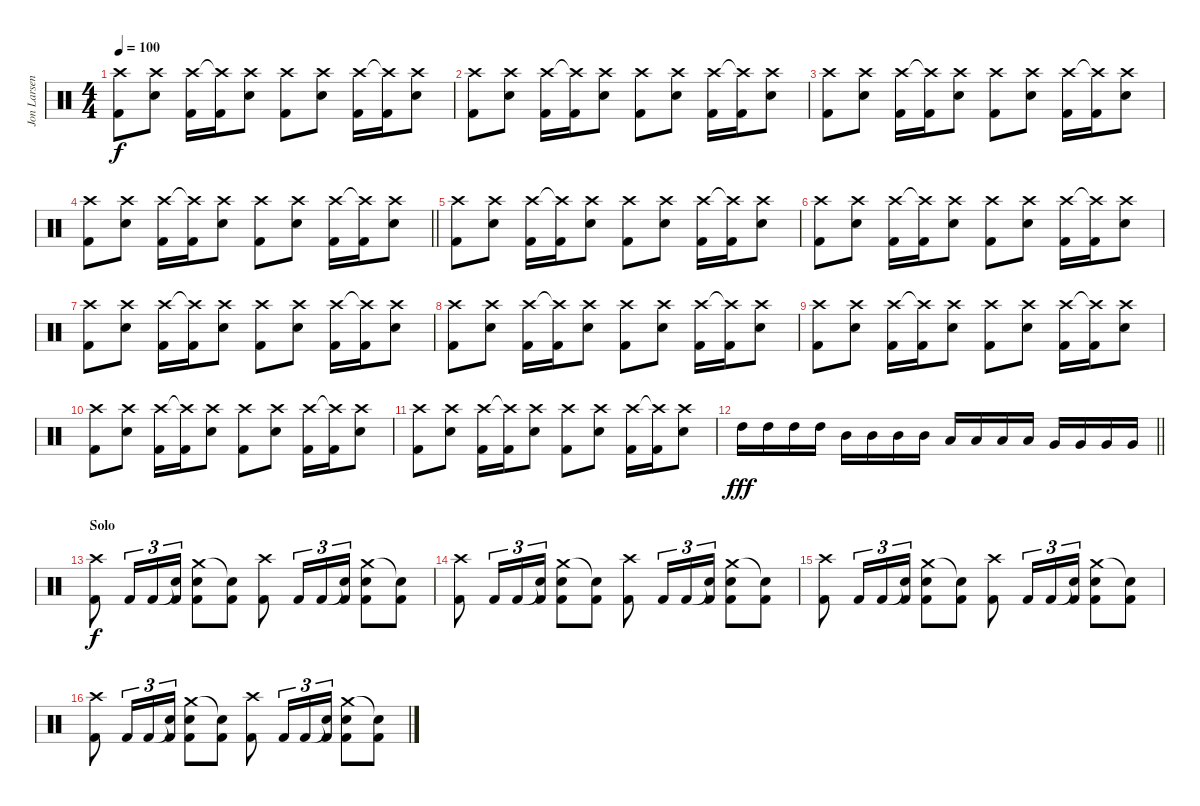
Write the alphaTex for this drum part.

\track ("Jon Larsen" "Jon Larsen") {instrument percussion}
\staff {score}
\articulation defaults
\ts (4 4)
\tempo 100
\clef neutral
\ks c
("Crash high (hit)" "Kick (hit) 2").8{dy f} ("Crash high (hit)" "Snare (hit) 2").8 ("Crash high (hit)" "Kick (hit) 2").16 ("Crash high (hit)"{t} "Kick (hit) 2").16 ("Crash high (hit)" "Snare (hit) 2").8 ("Crash high (hit)" "Kick (hit) 2").8 ("Crash high (hit)" "Snare (hit) 2").8 ("Crash high (hit)" "Kick (hit) 2").16 ("Crash high (hit)"{t} "Kick (hit) 2").16 ("Crash high (hit)" "Snare (hit) 2").8 |
("Crash high (hit)" "Kick (hit) 2").8 ("Crash high (hit)" "Snare (hit) 2").8 ("Crash high (hit)" "Kick (hit) 2").16 ("Crash high (hit)"{t} "Kick (hit) 2").16 ("Crash high (hit)" "Snare (hit) 2").8 ("Crash high (hit)" "Kick (hit) 2").8 ("Crash high (hit)" "Snare (hit) 2").8 ("Crash high (hit)" "Kick (hit) 2").16 ("Crash high (hit)"{t} "Kick (hit) 2").16 ("Crash high (hit)" "Snare (hit) 2").8 |
("Crash high (hit)" "Kick (hit) 2").8 ("Crash high (hit)" "Snare (hit) 2").8 ("Crash high (hit)" "Kick (hit) 2").16 ("Crash high (hit)"{t} "Kick (hit) 2").16 ("Crash high (hit)" "Snare (hit) 2").8 ("Crash high (hit)" "Kick (hit) 2").8 ("Crash high (hit)" "Snare (hit) 2").8 ("Crash high (hit)" "Kick (hit) 2").16 ("Crash high (hit)"{t} "Kick (hit) 2").16 ("Crash high (hit)" "Snare (hit) 2").8 |
\barLineRight lightlight
("Crash high (hit)" "Kick (hit) 2").8 ("Crash high (hit)" "Snare (hit) 2").8 ("Crash high (hit)" "Kick (hit) 2").16 ("Crash high (hit)"{t} "Kick (hit) 2").16 ("Crash high (hit)" "Snare (hit) 2").8 ("Crash high (hit)" "Kick (hit) 2").8 ("Crash high (hit)" "Snare (hit) 2").8 ("Crash high (hit)" "Kick (hit) 2").16 ("Crash high (hit)"{t} "Kick (hit) 2").16 ("Crash high (hit)" "Snare (hit) 2").8 |
("Crash high (hit)" "Kick (hit) 2").8 ("Crash high (hit)" "Snare (hit) 2").8 ("Crash high (hit)" "Kick (hit) 2").16 ("Crash high (hit)"{t} "Kick (hit) 2").16 ("Crash high (hit)" "Snare (hit) 2").8 ("Crash high (hit)" "Kick (hit) 2").8 ("Crash high (hit)" "Snare (hit) 2").8 ("Crash high (hit)" "Kick (hit) 2").16 ("Crash high (hit)"{t} "Kick (hit) 2").16 ("Crash high (hit)" "Snare (hit) 2").8 |
("Crash high (hit)" "Kick (hit) 2").8 ("Crash high (hit)" "Snare (hit) 2").8 ("Crash high (hit)" "Kick (hit) 2").16 ("Crash high (hit)"{t} "Kick (hit) 2").16 ("Crash high (hit)" "Snare (hit) 2").8 ("Crash high (hit)" "Kick (hit) 2").8 ("Crash high (hit)" "Snare (hit) 2").8 ("Crash high (hit)" "Kick (hit) 2").16 ("Crash high (hit)"{t} "Kick (hit) 2").16 ("Crash high (hit)" "Snare (hit) 2").8 |
("Crash high (hit)" "Kick (hit) 2").8 ("Crash high (hit)" "Snare (hit) 2").8 ("Crash high (hit)" "Kick (hit) 2").16 ("Crash high (hit)"{t} "Kick (hit) 2").16 ("Crash high (hit)" "Snare (hit) 2").8 ("Crash high (hit)" "Kick (hit) 2").8 ("Crash high (hit)" "Snare (hit) 2").8 ("Crash high (hit)" "Kick (hit) 2").16 ("Crash high (hit)"{t} "Kick (hit) 2").16 ("Crash high (hit)" "Snare (hit) 2").8 |
("Crash high (hit)" "Kick (hit) 2").8 ("Crash high (hit)" "Snare (hit) 2").8 ("Crash high (hit)" "Kick (hit) 2").16 ("Crash high (hit)"{t} "Kick (hit) 2").16 ("Crash high (hit)" "Snare (hit) 2").8 ("Crash high (hit)" "Kick (hit) 2").8 ("Crash high (hit)" "Snare (hit) 2").8 ("Crash high (hit)" "Kick (hit) 2").16 ("Crash high (hit)"{t} "Kick (hit) 2").16 ("Crash high (hit)" "Snare (hit) 2").8 |
("Crash high (hit)" "Kick (hit) 2").8 ("Crash high (hit)" "Snare (hit) 2").8 ("Crash high (hit)" "Kick (hit) 2").16 ("Crash high (hit)"{t} "Kick (hit) 2").16 ("Crash high (hit)" "Snare (hit) 2").8 ("Crash high (hit)" "Kick (hit) 2").8 ("Crash high (hit)" "Snare (hit) 2").8 ("Crash high (hit)" "Kick (hit) 2").16 ("Crash high (hit)"{t} "Kick (hit) 2").16 ("Crash high (hit)" "Snare (hit) 2").8 |
("Crash high (hit)" "Kick (hit) 2").8 ("Crash high (hit)" "Snare (hit) 2").8 ("Crash high (hit)" "Kick (hit) 2").16 ("Crash high (hit)"{t} "Kick (hit) 2").16 ("Crash high (hit)" "Snare (hit) 2").8 ("Crash high (hit)" "Kick (hit) 2").8 ("Crash high (hit)" "Snare (hit) 2").8 ("Crash high (hit)" "Kick (hit) 2").16 ("Crash high (hit)"{t} "Kick (hit) 2").16 ("Crash high (hit)" "Snare (hit) 2").8 |
("Crash high (hit)" "Kick (hit) 2").8 ("Crash high (hit)" "Snare (hit) 2").8 ("Crash high (hit)" "Kick (hit) 2").16 ("Crash high (hit)"{t} "Kick (hit) 2").16 ("Crash high (hit)" "Snare (hit) 2").8 ("Crash high (hit)" "Kick (hit) 2").8 ("Crash high (hit)" "Snare (hit) 2").8 ("Crash high (hit)" "Kick (hit) 2").16 ("Crash high (hit)"{t} "Kick (hit) 2").16 ("Crash high (hit)" "Snare (hit) 2").8 |
\barLineRight lightlight "High Tom (hit)".16{dy fff} "High Tom (hit)".16 "High Tom (hit)".16 "High Tom (hit)".16 "Mid Tom (hit)".16 "Mid Tom (hit)".16 "Mid Tom (hit)".16 "Mid Tom (hit)".16 "Low Tom (hit)".16 "Low Tom (hit)".16 "Low Tom (hit)".16 "Low Tom (hit)".16 "Very Low Tom (hit)".16 "Very Low Tom (hit)".16 "Very Low Tom (hit)".16 "Very Low Tom (hit)".16
|
\section ("" "Solo")
("Crash high (hit)" "Kick (hit) 2").8{dy f} "Kick (hit) 2".16{tu (3 2)} "Kick (hit) 2".16{tu (3 2)} ("Snare (hit)"{t} "Kick (hit) 2").16{tu (3 2)} ("Crash medium (hit)" "Snare (hit) 2" "Kick (hit) 2").8 ("Snare (hit)"{t} "Kick (hit) 2").8 ("Crash high (hit)" "Kick (hit) 2").8 "Kick (hit) 2".16{tu (3 2)} "Kick (hit) 2".16{tu (3 2)} ("Snare (hit)"{t} "Kick (hit) 2").16{tu (3 2)} ("Crash medium (hit)" "Snare (hit) 2" "Kick (hit) 2").8 ("Snare (hit)"{t} "Kick (hit) 2").8 |
("Crash high (hit)" "Kick (hit) 2").8 "Kick (hit) 2".16{tu (3 2)} "Kick (hit) 2".16{tu (3 2)} ("Snare (hit)"{t} "Kick (hit) 2").16{tu (3 2)} ("Crash medium (hit)" "Snare (hit) 2" "Kick (hit) 2").8 ("Snare (hit)"{t} "Kick (hit) 2").8 ("Crash high (hit)" "Kick (hit) 2").8 "Kick (hit) 2".16{tu (3 2)} "Kick (hit) 2".16{tu (3 2)} ("Snare (hit)"{t} "Kick (hit) 2").16{tu (3 2)} ("Crash medium (hit)" "Snare (hit) 2" "Kick (hit) 2").8 ("Snare (hit)"{t} "Kick (hit) 2").8 |
("Crash high (hit)" "Kick (hit) 2").8 "Kick (hit) 2".16{tu (3 2)} "Kick (hit) 2".16{tu (3 2)} ("Snare (hit)"{t} "Kick (hit) 2").16{tu (3 2)} ("Crash medium (hit)" "Snare (hit) 2" "Kick (hit) 2").8 ("Snare (hit)"{t} "Kick (hit) 2").8 ("Crash high (hit)" "Kick (hit) 2").8 "Kick (hit) 2".16{tu (3 2)} "Kick (hit) 2".16{tu (3 2)} ("Snare (hit)"{t} "Kick (hit) 2").16{tu (3 2)} ("Crash medium (hit)" "Snare (hit) 2" "Kick (hit) 2").8 ("Snare (hit)"{t} "Kick (hit) 2").8 |
("Crash high (hit)" "Kick (hit) 2").8 "Kick (hit) 2".16{tu (3 2)} "Kick (hit) 2".16{tu (3 2)} ("Snare (hit)"{t} "Kick (hit) 2").16{tu (3 2)} ("Crash medium (hit)" "Snare (hit) 2" "Kick (hit) 2").8 ("Snare (hit)"{t} "Kick (hit) 2").8 ("Crash high (hit)" "Kick (hit) 2").8 "Kick (hit) 2".16{tu (3 2)} "Kick (hit) 2".16{tu (3 2)} ("Snare (hit)"{t} "Kick (hit) 2").16{tu (3 2)} ("Crash medium (hit)" "Snare (hit) 2" "Kick (hit) 2").8 ("Snare (hit)"{t} "Kick (hit) 2").8
